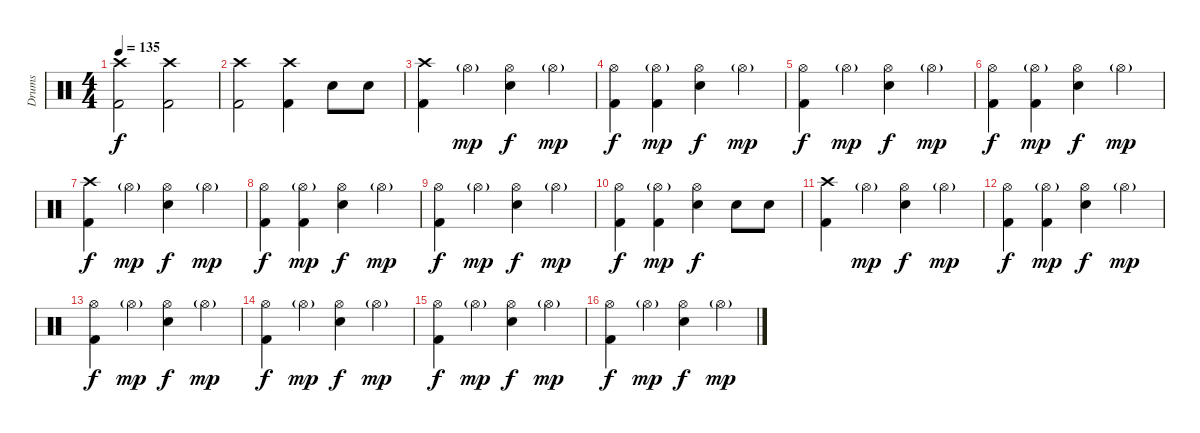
\track ("Drums" "Drums") {instrument percussion}
\staff {score}
\articulation defaults
\ts (4 4)
\tempo 135
\clef neutral
\ks c
("Crash high (hit)" "Kick (hit) 2").2{dy f} ("Crash high (hit)" "Kick (hit) 2").2 |
("Crash high (hit)" "Kick (hit) 2").2 ("Crash high (hit)" "Kick (hit) 2").4 "Snare (hit) 2".8 "Snare (hit) 2".8 |
("Crash high (hit)" "Kick (hit) 2").4 "Hi-Hat (open)"{g}.4{dy mp} ("Hi-Hat (open)" "Snare (hit) 2").4{dy f} "Hi-Hat (open)"{g}.4{dy mp} |
("Hi-Hat (open)" "Kick (hit) 2").4{dy f} ("Hi-Hat (open)"{g} "Kick (hit) 2").4{dy mp} ("Hi-Hat (open)" "Snare (hit) 2").4{dy f} "Hi-Hat (open)"{g}.4{dy mp} |
("Hi-Hat (open)" "Kick (hit) 2").4{dy f} "Hi-Hat (open)"{g}.4{dy mp} ("Hi-Hat (open)" "Snare (hit) 2").4{dy f} "Hi-Hat (open)"{g}.4{dy mp} |
("Hi-Hat (open)" "Kick (hit) 2").4{dy f} ("Hi-Hat (open)"{g} "Kick (hit) 2").4{dy mp} ("Hi-Hat (open)" "Snare (hit) 2").4{dy f} "Hi-Hat (open)"{g}.4{dy mp} |
("Crash high (hit)" "Kick (hit) 2").4{dy f} "Hi-Hat (open)"{g}.4{dy mp} ("Hi-Hat (open)" "Snare (hit) 2").4{dy f} "Hi-Hat (open)"{g}.4{dy mp} |
("Hi-Hat (open)" "Kick (hit) 2").4{dy f} ("Hi-Hat (open)"{g} "Kick (hit) 2").4{dy mp} ("Hi-Hat (open)" "Snare (hit) 2").4{dy f} "Hi-Hat (open)"{g}.4{dy mp} |
("Hi-Hat (open)" "Kick (hit) 2").4{dy f} "Hi-Hat (open)"{g}.4{dy mp} ("Hi-Hat (open)" "Snare (hit) 2").4{dy f} "Hi-Hat (open)"{g}.4{dy mp} |
("Hi-Hat (open)" "Kick (hit) 2").4{dy f} ("Hi-Hat (open)"{g} "Kick (hit) 2").4{dy mp} ("Hi-Hat (open)" "Snare (hit) 2").4{dy f} "Snare (hit) 2".8 "Snare (hit) 2".8 |
("Crash high (hit)" "Kick (hit) 2").4 "Hi-Hat (open)"{g}.4{dy mp} ("Hi-Hat (open)" "Snare (hit) 2").4{dy f} "Hi-Hat (open)"{g}.4{dy mp} |
("Hi-Hat (open)" "Kick (hit) 2").4{dy f} ("Hi-Hat (open)"{g} "Kick (hit) 2").4{dy mp} ("Hi-Hat (open)" "Snare (hit) 2").4{dy f} "Hi-Hat (open)"{g}.4{dy mp} |
("Hi-Hat (open)" "Kick (hit) 2").4{dy f} "Hi-Hat (open)"{g}.4{dy mp} ("Hi-Hat (open)" "Snare (hit) 2").4{dy f} "Hi-Hat (open)"{g}.4{dy mp} |
("Hi-Hat (open)" "Kick (hit) 2").4{dy f} "Hi-Hat (open)"{g}.4{dy mp} ("Hi-Hat (open)" "Snare (hit) 2").4{dy f} "Hi-Hat (open)"{g}.4{dy mp} |
("Hi-Hat (open)" "Kick (hit) 2").4{dy f} "Hi-Hat (open)"{g}.4{dy mp} ("Hi-Hat (open)" "Snare (hit) 2").4{dy f} "Hi-Hat (open)"{g}.4{dy mp} |
("Hi-Hat (open)" "Kick (hit) 2").4{dy f} "Hi-Hat (open)"{g}.4{dy mp} ("Hi-Hat (open)" "Snare (hit) 2").4{dy f} "Hi-Hat (open)"{g}.4{dy mp}
